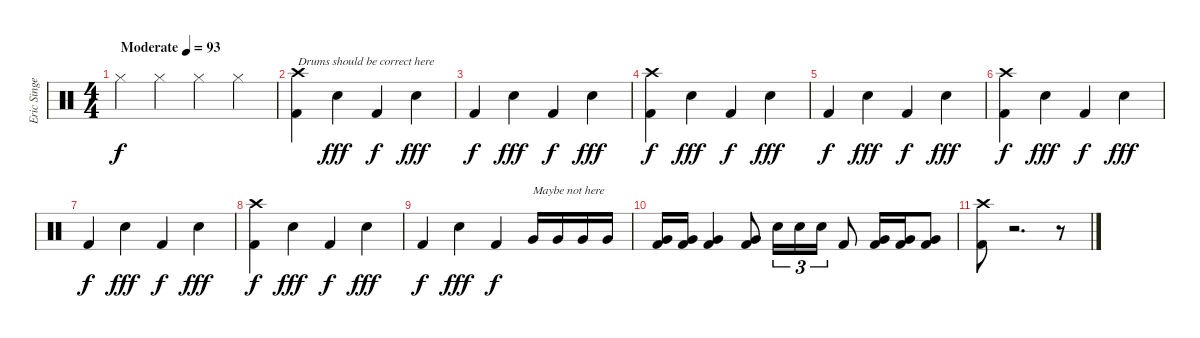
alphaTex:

\track ("Eric Singer (drums)" "Eric Singe") {instrument percussion}
\staff {score}
\articulation defaults
\ts (4 4)
\tempo (93 "Moderate")
\clef neutral
\ks c "Hi-Hat (closed)".4{dy f} "Hi-Hat (closed)".4 "Hi-Hat (closed)".4 "Hi-Hat (closed)".4
|
("Crash high (hit)" "Kick (hit) 2").4{txt "Drums should be correct here"} "Snare (hit) 2".4{dy fff} "Kick (hit) 2".4{dy f} "Snare (hit) 2".4{dy fff} |
"Kick (hit) 2".4{dy f} "Snare (hit) 2".4{dy fff} "Kick (hit) 2".4{dy f} "Snare (hit) 2".4{dy fff} |
("Crash high (hit)" "Kick (hit) 2").4{dy f} "Snare (hit) 2".4{dy fff} "Kick (hit) 2".4{dy f} "Snare (hit) 2".4{dy fff} |
"Kick (hit) 2".4{dy f} "Snare (hit) 2".4{dy fff} "Kick (hit) 2".4{dy f} "Snare (hit) 2".4{dy fff} |
("Crash high (hit)" "Kick (hit) 2").4{dy f} "Snare (hit) 2".4{dy fff} "Kick (hit) 2".4{dy f} "Snare (hit) 2".4{dy fff} |
"Kick (hit) 2".4{dy f} "Snare (hit) 2".4{dy fff} "Kick (hit) 2".4{dy f} "Snare (hit) 2".4{dy fff} |
("Crash high (hit)" "Kick (hit) 2").4{dy f} "Snare (hit) 2".4{dy fff} "Kick (hit) 2".4{dy f} "Snare (hit) 2".4{dy fff} |
"Kick (hit) 2".4{dy f} "Snare (hit) 2".4{dy fff} "Kick (hit) 2".4{dy f} "Very Low Tom (hit)".16{txt "Maybe not here"} "Very Low Tom (hit)".16 "Very Low Tom (hit)".16 "Very Low Tom (hit)".16 |
("Kick (hit) 2" "Very Low Tom (hit)").16 ("Kick (hit) 2" "Very Low Tom (hit)").16 ("Kick (hit) 2" "Very Low Tom (hit)").4 ("Kick (hit) 2" "Very Low Tom (hit)").8 "Snare (hit) 2".16{tu (3 2)} "Snare (hit) 2".16{tu (3 2)} "Snare (hit) 2".16{tu (3 2)} "Kick (hit) 2".8 ("Kick (hit) 2" "Very Low Tom (hit)").16 ("Kick (hit) 2" "Very Low Tom (hit)").16 ("Kick (hit) 2" "Very Low Tom (hit)").8 |
("Crash high (hit)" "Kick (hit) 2").8 r.2{d} r.8
